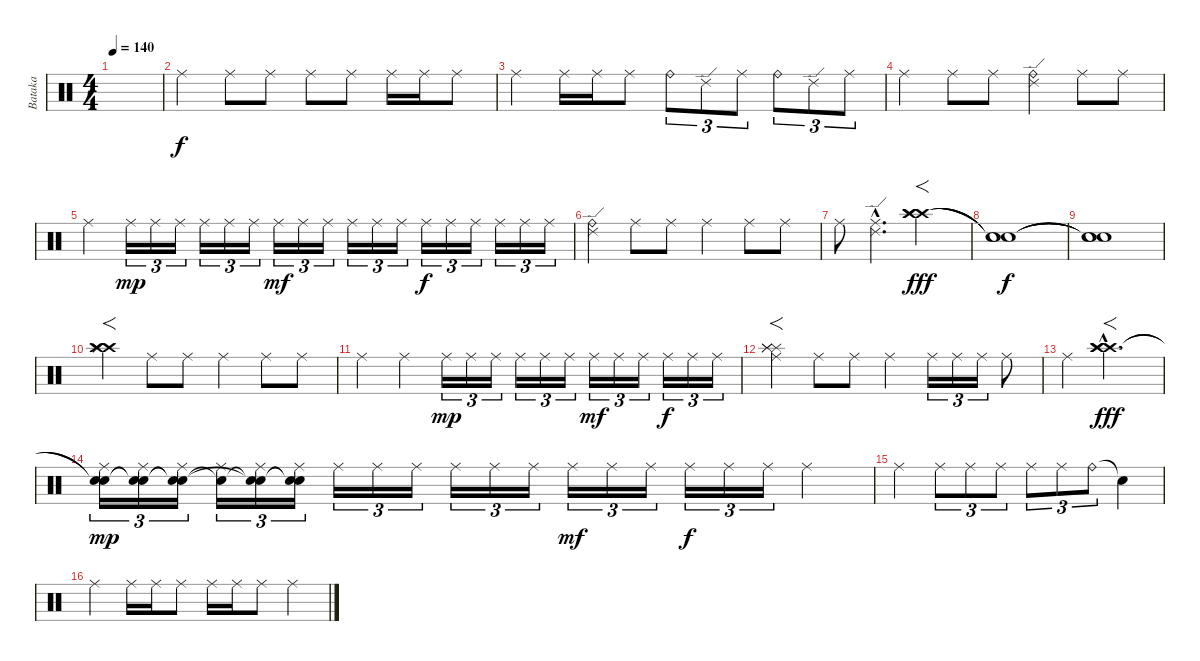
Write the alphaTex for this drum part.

\track ("Bataka" "Bataka") {instrument percussion}
\staff {score}
\articulation defaults
\ts (4 4)
\tempo 140
\clef neutral
\ks c
|
"Ride (middle)".4 "Ride (middle)".8 "Ride (middle)".8 "Ride (middle)".8 "Ride (middle)".8 "Ride (middle)".16 "Ride (middle)".16 "Ride (middle)".8 |
"Ride (middle)".4 "Ride (middle)".16 "Ride (middle)".16 "Ride (middle)".8 "Ride (bell)".8{tu (3 2)} "Ride (edge) 2".8{tu (3 2)} "Ride (middle)".8{tu (3 2)} "Ride (bell)".8{tu (3 2)} "Ride (edge) 2".8{tu (3 2)} "Ride (middle)".8{tu (3 2)} |
"Ride (middle)".4 "Ride (middle)".8 "Ride (middle)".8 ("Ride (edge) 2" "Ride (bell)").4 "Ride (middle)".8 "Ride (middle)".8 |
"Ride (middle)".4 "Ride (middle)".16{tu (3 2) dy mp} "Ride (middle)".16{tu (3 2)} "Ride (middle)".16{tu (3 2)} "Ride (middle)".16{tu (3 2)} "Ride (middle)".16{tu (3 2)} "Ride (middle)".16{tu (3 2)} "Ride (middle)".16{tu (3 2) dy mf} "Ride (middle)".16{tu (3 2)} "Ride (middle)".16{tu (3 2)} "Ride (middle)".16{tu (3 2)} "Ride (middle)".16{tu (3 2)} "Ride (middle)".16{tu (3 2)} "Ride (middle)".16{tu (3 2) dy f} "Ride (middle)".16{tu (3 2)} "Ride (middle)".16{tu (3 2)} "Ride (middle)".16{tu (3 2)} "Ride (middle)".16{tu (3 2)} "Ride (middle)".16{tu (3 2)} |
("Ride (bell)" "Ride (edge) 2").4 "Ride (middle)".8 "Ride (middle)".8 "Ride (middle)".4 "Ride (middle)".8 "Ride (middle)".8 |
"Ride (middle)".8 ("Ride (middle)"{hac} "Ride (edge) 2"{hac}).4{d} ("Crash high (hit)" "Crash high (hit)" "Crash high (hit)").2{f dy fff} |
("Snare (hit)"{t} "Snare (hit)"{t} "Snare (hit)"{t}).1{dy f} |
("Snare (hit)"{t} "Snare (hit)"{t} "Snare (hit)"{t}).1 |
("Crash high (hit)" "Crash high (hit)" "Splash (hit)" "Splash (hit)").4{f} "Ride (middle)".8 "Ride (middle)".8 "Ride (middle)".4 "Ride (middle)".8 "Ride (middle)".8 |
"Ride (middle)".4 "Ride (middle)".4 "Ride (middle)".16{tu (3 2) dy mp} "Ride (middle)".16{tu (3 2)} "Ride (middle)".16{tu (3 2)} "Ride (middle)".16{tu (3 2)} "Ride (middle)".16{tu (3 2)} "Ride (middle)".16{tu (3 2)} "Ride (middle)".16{tu (3 2) dy mf} "Ride (middle)".16{tu (3 2)} "Ride (middle)".16{tu (3 2)} "Ride (middle)".16{tu (3 2) dy f} "Ride (middle)".16{tu (3 2)} "Ride (middle)".16{tu (3 2)} |
("Ride (middle)" "Splash (hit)" "Splash (hit)" "Splash (hit)").4{f} "Ride (middle)".8 "Ride (middle)".8 "Ride (middle)".4 "Ride (middle)".16{tu (3 2)} "Ride (middle)".16{tu (3 2)} "Ride (middle)".16{tu (3 2)} "Ride (middle)".8 |
"Ride (middle)".4 ("Crash high (hit)"{hac} "Crash high (hit)"{hac} "Crash high (hit)"{hac}).2{f d dy fff} |
("Ride (middle)" "Snare (hit)"{t} "Snare (hit)"{t}).16{tu (3 2) dy mp} ("Ride (middle)" "Snare (hit)"{t} "Snare (hit)"{t}).16{tu (3 2)} ("Ride (middle)" "Snare (hit)"{t} "Snare (hit)"{t}).16{tu (3 2)} ("Ride (middle)" "Snare (hit)"{t}).16{tu (3 2)} ("Ride (middle)" "Snare (hit)"{t} "Snare (hit)"{t}).16{tu (3 2)} ("Ride (middle)" "Snare (hit)"{t} "Snare (hit)"{t}).16{tu (3 2)} "Ride (middle)".16{tu (3 2)} "Ride (middle)".16{tu (3 2)} "Ride (middle)".16{tu (3 2)} "Ride (middle)".16{tu (3 2)} "Ride (middle)".16{tu (3 2)} "Ride (middle)".16{tu (3 2)} "Ride (middle)".16{tu (3 2) dy mf} "Ride (middle)".16{tu (3 2)} "Ride (middle)".16{tu (3 2)} "Ride (middle)".16{tu (3 2) dy f} "Ride (middle)".16{tu (3 2)} "Ride (middle)".16{tu (3 2)} "Ride (middle)".4 |
"Ride (middle)".4 "Ride (middle)".8{tu (3 2)} "Ride (middle)".8{tu (3 2)} "Ride (middle)".8{tu (3 2)} "Ride (middle)".8{tu (3 2)} "Ride (middle)".8{tu (3 2)} "Ride (bell)".8{tu (3 2)} "Snare (hit)"{t}.4 |
"Ride (middle)".4 "Ride (middle)".16 "Ride (middle)".16 "Ride (middle)".8 "Ride (middle)".16 "Ride (middle)".16 "Ride (middle)".8 "Ride (middle)".4
